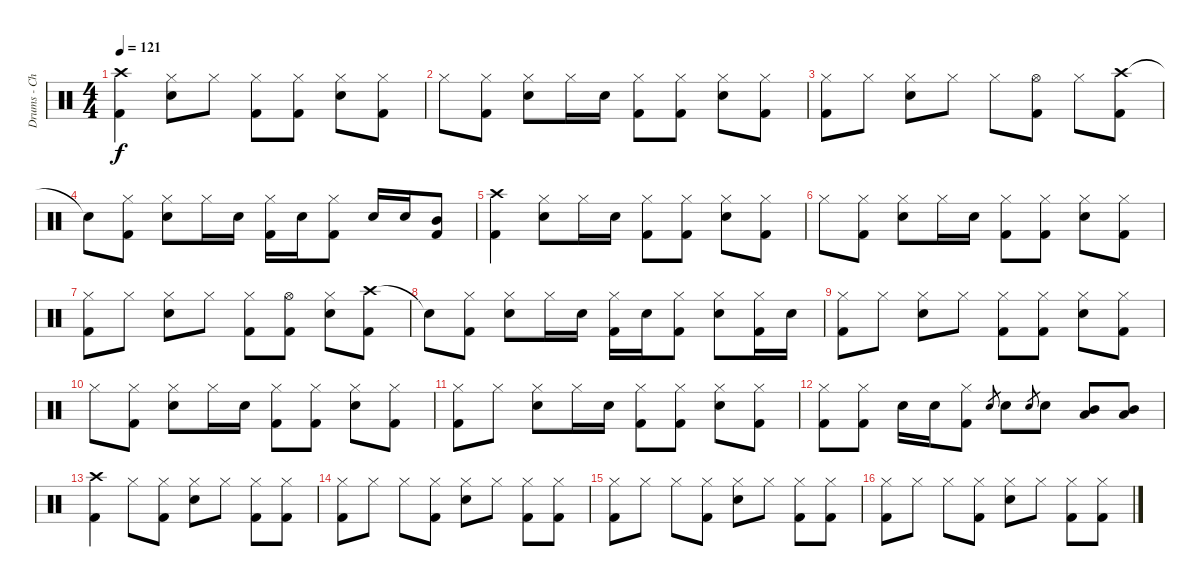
\track ("Drums - Chad" "Drums - Ch") {instrument percussion}
\staff {score}
\articulation defaults
\ts (4 4)
\tempo 121
\clef neutral
\ks c
("Crash high (hit)" "Kick (hit) 2").4{dy f} ("Hi-Hat (closed)" "Electric Snare (hit)").8 "Hi-Hat (closed)".8 ("Hi-Hat (closed)" "Kick (hit) 2").8 ("Hi-Hat (closed)" "Kick (hit) 2").8 ("Hi-Hat (closed)" "Electric Snare (hit)").8 ("Hi-Hat (closed)" "Kick (hit) 2").8 |
"Hi-Hat (closed)".8 ("Hi-Hat (closed)" "Kick (hit) 2").8 ("Hi-Hat (closed)" "Electric Snare (hit)").8 "Hi-Hat (closed)".16 "Electric Snare (hit)".16 ("Hi-Hat (closed)" "Kick (hit) 2").8 ("Hi-Hat (closed)" "Kick (hit) 2").8 ("Hi-Hat (closed)" "Electric Snare (hit)").8 ("Hi-Hat (closed)" "Kick (hit) 2").8 |
("Hi-Hat (closed)" "Kick (hit) 2").8 "Hi-Hat (closed)".8 ("Hi-Hat (closed)" "Electric Snare (hit)").8 "Hi-Hat (closed)".8 "Hi-Hat (closed)".8 ("Hi-Hat (open)" "Kick (hit) 2").8 "Hi-Hat (closed)".8 ("Crash high (hit)" "Kick (hit) 2").8 |
"Snare (hit)"{t}.8 ("Hi-Hat (closed)" "Kick (hit) 2").8 ("Hi-Hat (closed)" "Electric Snare (hit)").8 "Hi-Hat (closed)".16 "Electric Snare (hit)".16 ("Hi-Hat (closed)" "Kick (hit) 2").16 "Electric Snare (hit)".16 ("Hi-Hat (closed)" "Kick (hit) 2").8 "Electric Snare (hit)".16 "Electric Snare (hit)".16 ("Mid Tom (hit)" "Kick (hit) 2").8 |
("Crash high (hit)" "Kick (hit) 2").4 ("Hi-Hat (closed)" "Electric Snare (hit)").8 "Hi-Hat (closed)".16 "Electric Snare (hit)".16 ("Hi-Hat (closed)" "Kick (hit) 2").8 ("Hi-Hat (closed)" "Kick (hit) 2").8 ("Hi-Hat (closed)" "Electric Snare (hit)").8 ("Hi-Hat (closed)" "Kick (hit) 2").8 |
"Hi-Hat (closed)".8 ("Hi-Hat (closed)" "Kick (hit) 2").8 ("Hi-Hat (closed)" "Electric Snare (hit)").8 "Hi-Hat (closed)".16 "Electric Snare (hit)".16 ("Hi-Hat (closed)" "Kick (hit) 2").8 ("Hi-Hat (closed)" "Kick (hit) 2").8 ("Hi-Hat (closed)" "Electric Snare (hit)").8 ("Hi-Hat (closed)" "Kick (hit) 2").8 |
("Hi-Hat (closed)" "Kick (hit) 2").8 "Hi-Hat (closed)".8 ("Hi-Hat (closed)" "Electric Snare (hit)").8 "Hi-Hat (closed)".8 ("Hi-Hat (closed)" "Kick (hit) 2").8 ("Hi-Hat (open)" "Kick (hit) 2").8 ("Hi-Hat (closed)" "Electric Snare (hit)").8 ("Crash high (hit)" "Kick (hit) 2").8 |
"Snare (hit)"{t}.8 ("Hi-Hat (closed)" "Kick (hit) 2").8 ("Hi-Hat (closed)" "Electric Snare (hit)").8 "Hi-Hat (closed)".16 "Electric Snare (hit)".16 ("Hi-Hat (closed)" "Kick (hit) 2").16 "Electric Snare (hit)".16 ("Hi-Hat (closed)" "Kick (hit) 2").8 ("Hi-Hat (closed)" "Electric Snare (hit)").8 ("Hi-Hat (closed)" "Kick (hit) 2").16 "Electric Snare (hit)".16 |
("Hi-Hat (closed)" "Kick (hit) 2").8 "Hi-Hat (closed)".8 ("Hi-Hat (closed)" "Electric Snare (hit)").8 "Hi-Hat (closed)".8 ("Hi-Hat (closed)" "Kick (hit) 2").8 ("Hi-Hat (closed)" "Kick (hit) 2").8 ("Hi-Hat (closed)" "Electric Snare (hit)").8 ("Hi-Hat (closed)" "Kick (hit) 2").8 |
"Hi-Hat (closed)".8 ("Hi-Hat (closed)" "Kick (hit) 2").8 ("Hi-Hat (closed)" "Electric Snare (hit)").8 "Hi-Hat (closed)".16 "Electric Snare (hit)".16 ("Hi-Hat (closed)" "Kick (hit) 2").8 ("Hi-Hat (closed)" "Kick (hit) 2").8 ("Hi-Hat (closed)" "Electric Snare (hit)").8 ("Hi-Hat (closed)" "Kick (hit) 2").8 |
("Hi-Hat (closed)" "Kick (hit) 2").8 "Hi-Hat (closed)".8 ("Hi-Hat (closed)" "Electric Snare (hit)").8 "Hi-Hat (closed)".16 "Electric Snare (hit)".16 ("Hi-Hat (closed)" "Kick (hit) 2").8 ("Hi-Hat (closed)" "Kick (hit) 2").8 ("Hi-Hat (closed)" "Electric Snare (hit)").8 ("Hi-Hat (closed)" "Kick (hit) 2").8 |
("Hi-Hat (closed)" "Kick (hit) 2").8 ("Hi-Hat (closed)" "Kick (hit) 2").8 "Electric Snare (hit)".16 "Electric Snare (hit)".16 ("Hi-Hat (closed)" "Kick (hit) 2").8 "Electric Snare (hit)".8{gr} "Electric Snare (hit)".8 "Electric Snare (hit)".8{gr} "Electric Snare (hit)".8 ("Mid Tom (hit)" "Low Tom (hit)").8 ("Mid Tom (hit)" "Low Tom (hit)").8 |
("Crash high (hit)" "Kick (hit) 2").4 "Hi-Hat (closed)".8 ("Hi-Hat (closed)" "Kick (hit) 2").8 ("Hi-Hat (closed)" "Electric Snare (hit)").8 "Hi-Hat (closed)".8 ("Hi-Hat (closed)" "Kick (hit) 2").8 ("Hi-Hat (closed)" "Kick (hit) 2").8 |
("Hi-Hat (closed)" "Kick (hit) 2").8 "Hi-Hat (closed)".8 "Hi-Hat (closed)".8 ("Hi-Hat (closed)" "Kick (hit) 2").8 ("Hi-Hat (closed)" "Electric Snare (hit)").8 "Hi-Hat (closed)".8 ("Hi-Hat (closed)" "Kick (hit) 2").8 ("Hi-Hat (closed)" "Kick (hit) 2").8 |
("Hi-Hat (closed)" "Kick (hit) 2").8 "Hi-Hat (closed)".8 "Hi-Hat (closed)".8 ("Hi-Hat (closed)" "Kick (hit) 2").8 ("Hi-Hat (closed)" "Electric Snare (hit)").8 "Hi-Hat (closed)".8 ("Hi-Hat (closed)" "Kick (hit) 2").8 ("Hi-Hat (closed)" "Kick (hit) 2").8 |
("Hi-Hat (closed)" "Kick (hit) 2").8 "Hi-Hat (closed)".8 "Hi-Hat (closed)".8 ("Hi-Hat (closed)" "Kick (hit) 2").8 ("Hi-Hat (closed)" "Electric Snare (hit)").8 "Hi-Hat (closed)".8 ("Hi-Hat (closed)" "Kick (hit) 2").8 ("Hi-Hat (closed)" "Kick (hit) 2").8
